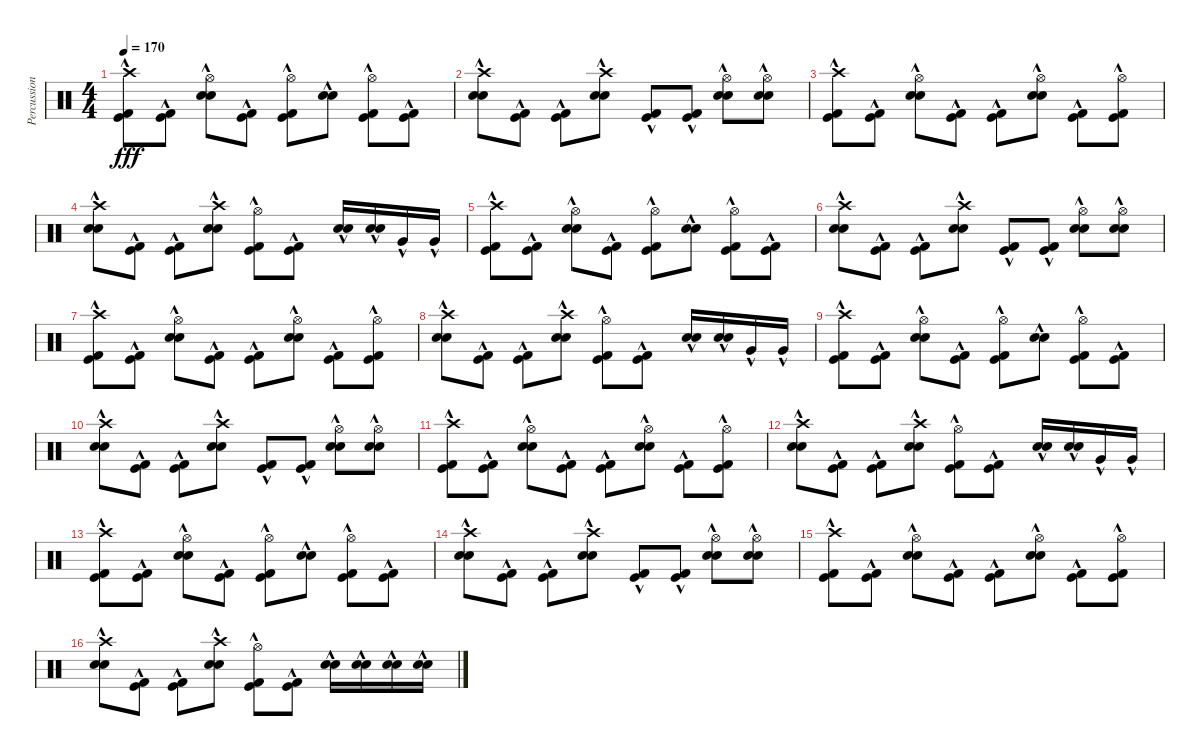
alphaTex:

\track ("Percussion" "Percussion") {instrument percussion}
\staff {score}
\articulation defaults
\ts (4 4)
\tempo 170
\clef neutral
\ks c
("Crash high (hit)" "Kick (hit) 2"{hac} "Kick (hit)"{hac}).8{dy fff} ("Kick (hit) 2"{hac} "Kick (hit)"{hac}).8 ("Hi-Hat (open)" "Snare (hit) 2"{hac} "Electric Snare (hit)"{hac}).8 ("Kick (hit) 2"{hac} "Kick (hit)"{hac}).8 ("Hi-Hat (open)" "Kick (hit) 2"{hac} "Kick (hit)"{hac}).8 ("Snare (hit) 2"{hac} "Electric Snare (hit)"{hac}).8 ("Hi-Hat (open)" "Kick (hit) 2"{hac} "Kick (hit)"{hac}).8 ("Kick (hit) 2"{hac} "Kick (hit)"{hac}).8 |
("Crash high (hit)" "Snare (hit) 2"{hac} "Electric Snare (hit)"{hac}).8 ("Kick (hit) 2"{hac} "Kick (hit)"{hac}).8 ("Kick (hit) 2"{hac} "Kick (hit)"{hac}).8 ("Crash high (hit)" "Snare (hit) 2"{hac} "Electric Snare (hit)"{hac}).8 ("Kick (hit) 2"{hac} "Kick (hit)"{hac}).8 ("Kick (hit) 2"{hac} "Kick (hit)"{hac}).8 ("Hi-Hat (open)" "Snare (hit) 2"{hac} "Electric Snare (hit)"{hac}).8 ("Hi-Hat (open)" "Snare (hit) 2"{hac} "Electric Snare (hit)"{hac}).8 |
("Crash high (hit)" "Kick (hit) 2"{hac} "Kick (hit)"{hac}).8 ("Kick (hit) 2"{hac} "Kick (hit)"{hac}).8 ("Hi-Hat (open)" "Snare (hit) 2"{hac} "Electric Snare (hit)"{hac}).8 ("Kick (hit) 2"{hac} "Kick (hit)"{hac}).8 ("Kick (hit) 2"{hac} "Kick (hit)"{hac}).8 ("Hi-Hat (open)" "Snare (hit) 2"{hac} "Electric Snare (hit)"{hac}).8 ("Kick (hit) 2"{hac} "Kick (hit)"{hac}).8 ("Hi-Hat (open)" "Kick (hit) 2"{hac} "Kick (hit)"{hac}).8 |
("Crash high (hit)" "Snare (hit) 2"{hac} "Electric Snare (hit)"{hac}).8 ("Kick (hit) 2"{hac} "Kick (hit)"{hac}).8 ("Kick (hit) 2"{hac} "Kick (hit)"{hac}).8 ("Crash high (hit)" "Snare (hit) 2"{hac} "Electric Snare (hit)"{hac}).8 ("Hi-Hat (open)" "Kick (hit) 2"{hac} "Kick (hit)"{hac}).8 ("Kick (hit) 2"{hac} "Kick (hit)"{hac}).8 ("Snare (hit) 2"{hac} "Electric Snare (hit)"{hac}).16 ("Snare (hit) 2"{hac} "Electric Snare (hit)"{hac}).16 "Very Low Tom (hit)"{hac}.16 "Very Low Tom (hit)"{hac}.16 |
("Crash high (hit)" "Kick (hit) 2"{hac} "Kick (hit)"{hac}).8 ("Kick (hit) 2"{hac} "Kick (hit)"{hac}).8 ("Hi-Hat (open)" "Snare (hit) 2"{hac} "Electric Snare (hit)"{hac}).8 ("Kick (hit) 2"{hac} "Kick (hit)"{hac}).8 ("Hi-Hat (open)" "Kick (hit) 2"{hac} "Kick (hit)"{hac}).8 ("Snare (hit) 2"{hac} "Electric Snare (hit)"{hac}).8 ("Hi-Hat (open)" "Kick (hit) 2"{hac} "Kick (hit)"{hac}).8 ("Kick (hit) 2"{hac} "Kick (hit)"{hac}).8 |
("Crash high (hit)" "Snare (hit) 2"{hac} "Electric Snare (hit)"{hac}).8 ("Kick (hit) 2"{hac} "Kick (hit)"{hac}).8 ("Kick (hit) 2"{hac} "Kick (hit)"{hac}).8 ("Crash high (hit)" "Snare (hit) 2"{hac} "Electric Snare (hit)"{hac}).8 ("Kick (hit) 2"{hac} "Kick (hit)"{hac}).8 ("Kick (hit) 2"{hac} "Kick (hit)"{hac}).8 ("Hi-Hat (open)" "Snare (hit) 2"{hac} "Electric Snare (hit)"{hac}).8 ("Hi-Hat (open)" "Snare (hit) 2"{hac} "Electric Snare (hit)"{hac}).8 |
("Crash high (hit)" "Kick (hit) 2"{hac} "Kick (hit)"{hac}).8 ("Kick (hit) 2"{hac} "Kick (hit)"{hac}).8 ("Hi-Hat (open)" "Snare (hit) 2"{hac} "Electric Snare (hit)"{hac}).8 ("Kick (hit) 2"{hac} "Kick (hit)"{hac}).8 ("Kick (hit) 2"{hac} "Kick (hit)"{hac}).8 ("Hi-Hat (open)" "Snare (hit) 2"{hac} "Electric Snare (hit)"{hac}).8 ("Kick (hit) 2"{hac} "Kick (hit)"{hac}).8 ("Hi-Hat (open)" "Kick (hit) 2"{hac} "Kick (hit)"{hac}).8 |
("Crash high (hit)" "Snare (hit) 2"{hac} "Electric Snare (hit)"{hac}).8 ("Kick (hit) 2"{hac} "Kick (hit)"{hac}).8 ("Kick (hit) 2"{hac} "Kick (hit)"{hac}).8 ("Crash high (hit)" "Snare (hit) 2"{hac} "Electric Snare (hit)"{hac}).8 ("Hi-Hat (open)" "Kick (hit) 2"{hac} "Kick (hit)"{hac}).8 ("Kick (hit) 2"{hac} "Kick (hit)"{hac}).8 ("Snare (hit) 2"{hac} "Electric Snare (hit)"{hac}).16 ("Snare (hit) 2"{hac} "Electric Snare (hit)"{hac}).16 "Very Low Tom (hit)"{hac}.16 "Very Low Tom (hit)"{hac}.16 |
("Crash high (hit)" "Kick (hit) 2"{hac} "Kick (hit)"{hac}).8 ("Kick (hit) 2"{hac} "Kick (hit)"{hac}).8 ("Hi-Hat (open)" "Snare (hit) 2"{hac} "Electric Snare (hit)"{hac}).8 ("Kick (hit) 2"{hac} "Kick (hit)"{hac}).8 ("Hi-Hat (open)" "Kick (hit) 2"{hac} "Kick (hit)"{hac}).8 ("Snare (hit) 2"{hac} "Electric Snare (hit)"{hac}).8 ("Hi-Hat (open)" "Kick (hit) 2"{hac} "Kick (hit)"{hac}).8 ("Kick (hit) 2"{hac} "Kick (hit)"{hac}).8 |
("Crash high (hit)" "Snare (hit) 2"{hac} "Electric Snare (hit)"{hac}).8 ("Kick (hit) 2"{hac} "Kick (hit)"{hac}).8 ("Kick (hit) 2"{hac} "Kick (hit)"{hac}).8 ("Crash high (hit)" "Snare (hit) 2"{hac} "Electric Snare (hit)"{hac}).8 ("Kick (hit) 2"{hac} "Kick (hit)"{hac}).8 ("Kick (hit) 2"{hac} "Kick (hit)"{hac}).8 ("Hi-Hat (open)" "Snare (hit) 2"{hac} "Electric Snare (hit)"{hac}).8 ("Hi-Hat (open)" "Snare (hit) 2"{hac} "Electric Snare (hit)"{hac}).8 |
("Crash high (hit)" "Kick (hit) 2"{hac} "Kick (hit)"{hac}).8 ("Kick (hit) 2"{hac} "Kick (hit)"{hac}).8 ("Hi-Hat (open)" "Snare (hit) 2"{hac} "Electric Snare (hit)"{hac}).8 ("Kick (hit) 2"{hac} "Kick (hit)"{hac}).8 ("Kick (hit) 2"{hac} "Kick (hit)"{hac}).8 ("Hi-Hat (open)" "Snare (hit) 2"{hac} "Electric Snare (hit)"{hac}).8 ("Kick (hit) 2"{hac} "Kick (hit)"{hac}).8 ("Hi-Hat (open)" "Kick (hit) 2"{hac} "Kick (hit)"{hac}).8 |
("Crash high (hit)" "Snare (hit) 2"{hac} "Electric Snare (hit)"{hac}).8 ("Kick (hit) 2"{hac} "Kick (hit)"{hac}).8 ("Kick (hit) 2"{hac} "Kick (hit)"{hac}).8 ("Crash high (hit)" "Snare (hit) 2"{hac} "Electric Snare (hit)"{hac}).8 ("Hi-Hat (open)" "Kick (hit) 2"{hac} "Kick (hit)"{hac}).8 ("Kick (hit) 2"{hac} "Kick (hit)"{hac}).8 ("Snare (hit) 2"{hac} "Electric Snare (hit)"{hac}).16 ("Snare (hit) 2"{hac} "Electric Snare (hit)"{hac}).16 "Very Low Tom (hit)"{hac}.16 "Very Low Tom (hit)"{hac}.16 |
("Crash high (hit)" "Kick (hit) 2"{hac} "Kick (hit)"{hac}).8 ("Kick (hit) 2"{hac} "Kick (hit)"{hac}).8 ("Hi-Hat (open)" "Snare (hit) 2"{hac} "Electric Snare (hit)"{hac}).8 ("Kick (hit) 2"{hac} "Kick (hit)"{hac}).8 ("Hi-Hat (open)" "Kick (hit) 2"{hac} "Kick (hit)"{hac}).8 ("Snare (hit) 2"{hac} "Electric Snare (hit)"{hac}).8 ("Hi-Hat (open)" "Kick (hit) 2"{hac} "Kick (hit)"{hac}).8 ("Kick (hit) 2"{hac} "Kick (hit)"{hac}).8 |
("Crash high (hit)" "Snare (hit) 2"{hac} "Electric Snare (hit)"{hac}).8 ("Kick (hit) 2"{hac} "Kick (hit)"{hac}).8 ("Kick (hit) 2"{hac} "Kick (hit)"{hac}).8 ("Crash high (hit)" "Snare (hit) 2"{hac} "Electric Snare (hit)"{hac}).8 ("Kick (hit) 2"{hac} "Kick (hit)"{hac}).8 ("Kick (hit) 2"{hac} "Kick (hit)"{hac}).8 ("Hi-Hat (open)" "Snare (hit) 2"{hac} "Electric Snare (hit)"{hac}).8 ("Hi-Hat (open)" "Snare (hit) 2"{hac} "Electric Snare (hit)"{hac}).8 |
("Crash high (hit)" "Kick (hit) 2"{hac} "Kick (hit)"{hac}).8 ("Kick (hit) 2"{hac} "Kick (hit)"{hac}).8 ("Hi-Hat (open)" "Snare (hit) 2"{hac} "Electric Snare (hit)"{hac}).8 ("Kick (hit) 2"{hac} "Kick (hit)"{hac}).8 ("Kick (hit) 2"{hac} "Kick (hit)"{hac}).8 ("Hi-Hat (open)" "Snare (hit) 2"{hac} "Electric Snare (hit)"{hac}).8 ("Kick (hit) 2"{hac} "Kick (hit)"{hac}).8 ("Hi-Hat (open)" "Kick (hit) 2"{hac} "Kick (hit)"{hac}).8 |
("Crash high (hit)" "Snare (hit) 2"{hac} "Electric Snare (hit)"{hac}).8 ("Kick (hit) 2"{hac} "Kick (hit)"{hac}).8 ("Kick (hit) 2"{hac} "Kick (hit)"{hac}).8 ("Crash high (hit)" "Snare (hit) 2"{hac} "Electric Snare (hit)"{hac}).8 ("Hi-Hat (open)" "Kick (hit) 2"{hac} "Kick (hit)"{hac}).8 ("Kick (hit) 2"{hac} "Kick (hit)"{hac}).8 ("Snare (hit) 2"{hac} "Electric Snare (hit)"{hac}).16 ("Snare (hit) 2"{hac} "Electric Snare (hit)"{hac}).16 ("Snare (hit) 2"{hac} "Electric Snare (hit)"{hac}).16 ("Snare (hit) 2"{hac} "Electric Snare (hit)"{hac}).16
